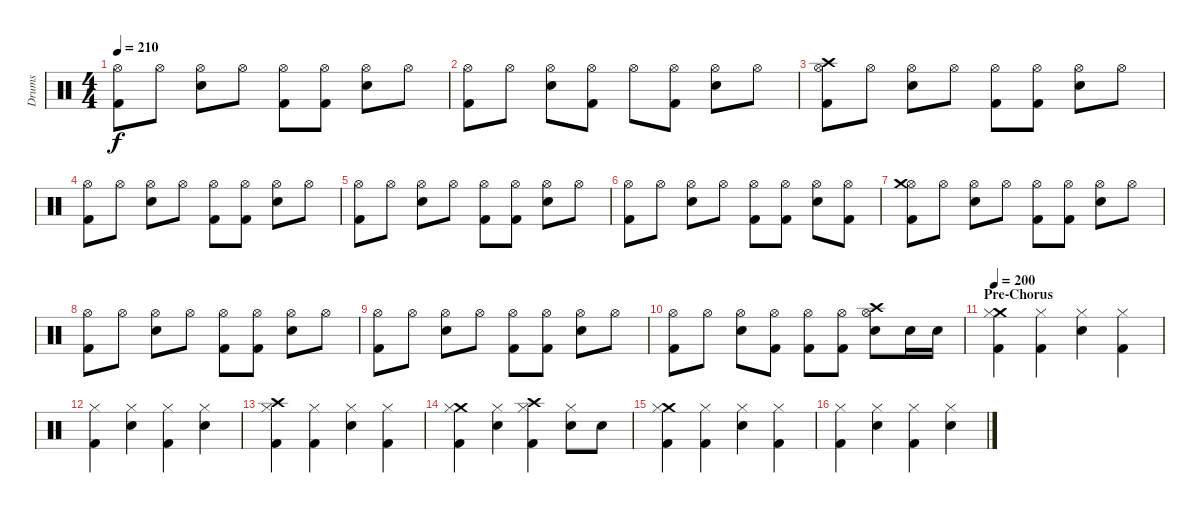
\track ("Drums" "Drums") {instrument percussion}
\staff {score}
\articulation defaults
\ts (4 4)
\tempo 210
\clef neutral
\ks c
("Hi-Hat (open)" "Kick (hit) 2").8{dy f} "Hi-Hat (open)".8 ("Hi-Hat (open)" "Electric Snare (hit)").8 "Hi-Hat (open)".8 ("Hi-Hat (open)" "Kick (hit) 2").8 ("Hi-Hat (open)" "Kick (hit) 2").8 ("Hi-Hat (open)" "Electric Snare (hit)").8 "Hi-Hat (open)".8 |
("Hi-Hat (open)" "Kick (hit) 2").8 "Hi-Hat (open)".8 ("Hi-Hat (open)" "Electric Snare (hit)").8 ("Hi-Hat (open)" "Kick (hit) 2").8 "Hi-Hat (open)".8 ("Hi-Hat (open)" "Kick (hit) 2").8 ("Hi-Hat (open)" "Electric Snare (hit)").8 "Hi-Hat (open)".8 |
("Hi-Hat (open)" "Crash high (hit)" "Kick (hit) 2").8 "Hi-Hat (open)".8 ("Hi-Hat (open)" "Electric Snare (hit)").8 "Hi-Hat (open)".8 ("Hi-Hat (open)" "Kick (hit) 2").8 ("Hi-Hat (open)" "Kick (hit) 2").8 ("Hi-Hat (open)" "Electric Snare (hit)").8 "Hi-Hat (open)".8 |
("Hi-Hat (open)" "Kick (hit) 2").8 "Hi-Hat (open)".8 ("Hi-Hat (open)" "Electric Snare (hit)").8 "Hi-Hat (open)".8 ("Hi-Hat (open)" "Kick (hit) 2").8 ("Hi-Hat (open)" "Kick (hit) 2").8 ("Hi-Hat (open)" "Electric Snare (hit)").8 "Hi-Hat (open)".8 |
("Hi-Hat (open)" "Kick (hit) 2").8 "Hi-Hat (open)".8 ("Hi-Hat (open)" "Electric Snare (hit)").8 "Hi-Hat (open)".8 ("Hi-Hat (open)" "Kick (hit) 2").8 ("Hi-Hat (open)" "Kick (hit) 2").8 ("Hi-Hat (open)" "Electric Snare (hit)").8 "Hi-Hat (open)".8 |
("Hi-Hat (open)" "Kick (hit) 2").8 "Hi-Hat (open)".8 ("Hi-Hat (open)" "Electric Snare (hit)").8 "Hi-Hat (open)".8 ("Hi-Hat (open)" "Kick (hit) 2").8 ("Hi-Hat (open)" "Kick (hit) 2").8 ("Hi-Hat (open)" "Electric Snare (hit)").8 ("Hi-Hat (open)" "Kick (hit) 2").8 |
("Hi-Hat (open)" "Crash medium (hit)" "Kick (hit) 2").8 "Hi-Hat (open)".8 ("Hi-Hat (open)" "Electric Snare (hit)").8 "Hi-Hat (open)".8 ("Hi-Hat (open)" "Kick (hit) 2").8 ("Hi-Hat (open)" "Kick (hit) 2").8 ("Hi-Hat (open)" "Electric Snare (hit)").8 "Hi-Hat (open)".8 |
("Hi-Hat (open)" "Kick (hit) 2").8 "Hi-Hat (open)".8 ("Hi-Hat (open)" "Electric Snare (hit)").8 "Hi-Hat (open)".8 ("Hi-Hat (open)" "Kick (hit) 2").8 ("Hi-Hat (open)" "Kick (hit) 2").8 ("Hi-Hat (open)" "Electric Snare (hit)").8 "Hi-Hat (open)".8 |
("Hi-Hat (open)" "Kick (hit) 2").8 "Hi-Hat (open)".8 ("Hi-Hat (open)" "Electric Snare (hit)").8 "Hi-Hat (open)".8 ("Hi-Hat (open)" "Kick (hit) 2").8 ("Hi-Hat (open)" "Kick (hit) 2").8 ("Hi-Hat (open)" "Electric Snare (hit)").8 "Hi-Hat (open)".8 |
("Hi-Hat (open)" "Kick (hit) 2").8 "Hi-Hat (open)".8 ("Hi-Hat (open)" "Electric Snare (hit)").8 ("Hi-Hat (open)" "Kick (hit) 2").8 ("Hi-Hat (open)" "Kick (hit) 2").8 ("Hi-Hat (open)" "Kick (hit) 2").8 ("Hi-Hat (open)" "Crash high (hit)" "Electric Snare (hit)").8 "Electric Snare (hit)".16 "Electric Snare (hit)".16 |
\section ("" "Pre-Chorus")
\tempo 200
("Crash medium (hit)" "Hi-Hat (closed)" "Kick (hit) 2").4 ("Hi-Hat (closed)" "Kick (hit) 2").4 ("Hi-Hat (closed)" "Electric Snare (hit)").4 ("Hi-Hat (closed)" "Kick (hit) 2").4 |
("Hi-Hat (closed)" "Kick (hit) 2").4 ("Hi-Hat (closed)" "Electric Snare (hit)").4 ("Hi-Hat (closed)" "Kick (hit) 2").4 ("Hi-Hat (closed)" "Electric Snare (hit)").4 |
("Crash high (hit)" "Hi-Hat (closed)" "Kick (hit) 2").4 ("Hi-Hat (closed)" "Kick (hit) 2").4 ("Hi-Hat (closed)" "Electric Snare (hit)").4 ("Hi-Hat (closed)" "Kick (hit) 2").4 |
("Crash medium (hit)" "Hi-Hat (closed)" "Kick (hit) 2").4 ("Hi-Hat (closed)" "Electric Snare (hit)").4 ("Crash high (hit)" "Hi-Hat (closed)" "Kick (hit) 2").4 ("Hi-Hat (closed)" "Electric Snare (hit)").8 "Electric Snare (hit)".8 |
("Crash medium (hit)" "Hi-Hat (closed)" "Kick (hit) 2").4 ("Hi-Hat (closed)" "Kick (hit) 2").4 ("Hi-Hat (closed)" "Electric Snare (hit)").4 ("Hi-Hat (closed)" "Kick (hit) 2").4 |
("Hi-Hat (closed)" "Kick (hit) 2").4 ("Hi-Hat (closed)" "Electric Snare (hit)").4 ("Hi-Hat (closed)" "Kick (hit) 2").4 ("Hi-Hat (closed)" "Electric Snare (hit)").4
